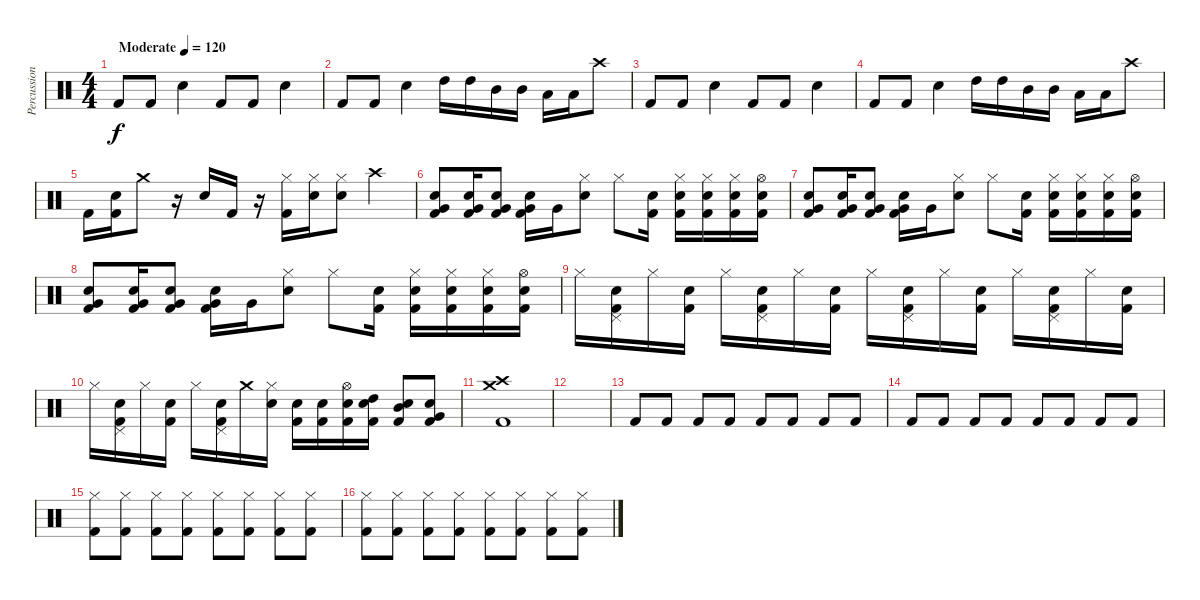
\track ("Percussion" "Percussion") {instrument percussion}
\staff {score}
\articulation defaults
\ts (4 4)
\tempo (120 "Moderate")
\clef neutral
\ks c "Kick (hit) 2".8{dy f} "Kick (hit) 2".8 "Snare (hit) 2".4 "Kick (hit) 2".8 "Kick (hit) 2".8 "Snare (hit) 2".4
|
"Kick (hit) 2".8 "Kick (hit) 2".8 "Snare (hit) 2".4 "High Tom (hit)".16 "High Tom (hit)".16 "Mid Tom (hit)".16 "Mid Tom (hit)".16 "Low Tom (hit)".16 "Low Tom (hit)".16 "Crash high (hit)".8 |
"Kick (hit) 2".8 "Kick (hit) 2".8 "Snare (hit) 2".4 "Kick (hit) 2".8 "Kick (hit) 2".8 "Snare (hit) 2".4 |
"Kick (hit) 2".8 "Kick (hit) 2".8 "Snare (hit) 2".4 "High Tom (hit)".16 "High Tom (hit)".16 "Mid Tom (hit)".16 "Mid Tom (hit)".16 "Low Tom (hit)".16 "Low Tom (hit)".16 "Crash high (hit)".8 |
"Kick (hit) 2".16 ("Kick (hit) 2" "Snare (hit) 2").16 "Crash medium (hit)".8 r.16 "Snare (hit) 2".16 "Kick (hit) 2".16 r.16 ("Kick (hit) 2" "Hi-Hat (closed)").16 ("Snare (hit) 2" "Hi-Hat (closed)").16 ("Snare (hit) 2" "Hi-Hat (closed)").8 "Crash high (hit)".4 |
("Very Low Tom (hit)" "Kick (hit) 2" "Snare (hit) 2").8 ("Very Low Tom (hit)" "Kick (hit) 2" "Snare (hit) 2").16 ("Very Low Tom (hit)" "Kick (hit) 2" "Snare (hit) 2").8 ("Very Low Tom (hit)" "Kick (hit) 2" "Snare (hit) 2").16 "Very Low Tom (hit)".16 ("Hi-Hat (closed)" "Snare (hit) 2").8 "Hi-Hat (closed)".8 ("Snare (hit) 2" "Kick (hit) 2").16 ("Hi-Hat (closed)" "Snare (hit) 2" "Kick (hit) 2").16 ("Hi-Hat (closed)" "Snare (hit) 2" "Kick (hit) 2").16 ("Hi-Hat (closed)" "Snare (hit) 2" "Kick (hit) 2").16 ("Snare (hit) 2" "Kick (hit) 2" "Hi-Hat (open)").16 |
("Very Low Tom (hit)" "Kick (hit) 2" "Snare (hit) 2").8 ("Very Low Tom (hit)" "Kick (hit) 2" "Snare (hit) 2").16 ("Very Low Tom (hit)" "Kick (hit) 2" "Snare (hit) 2").8 ("Very Low Tom (hit)" "Kick (hit) 2" "Snare (hit) 2").16 "Very Low Tom (hit)".16 ("Hi-Hat (closed)" "Snare (hit) 2").8 "Hi-Hat (closed)".8 ("Snare (hit) 2" "Kick (hit) 2").16 ("Hi-Hat (closed)" "Snare (hit) 2" "Kick (hit) 2").16 ("Hi-Hat (closed)" "Snare (hit) 2" "Kick (hit) 2").16 ("Hi-Hat (closed)" "Snare (hit) 2" "Kick (hit) 2").16 ("Snare (hit) 2" "Kick (hit) 2" "Hi-Hat (open)").16 |
("Very Low Tom (hit)" "Kick (hit) 2" "Snare (hit) 2").8 ("Very Low Tom (hit)" "Kick (hit) 2" "Snare (hit) 2").16 ("Very Low Tom (hit)" "Kick (hit) 2" "Snare (hit) 2").8 ("Very Low Tom (hit)" "Kick (hit) 2" "Snare (hit) 2").16 "Very Low Tom (hit)".16 ("Hi-Hat (closed)" "Snare (hit) 2").8 "Hi-Hat (closed)".8 ("Snare (hit) 2" "Kick (hit) 2").16 ("Hi-Hat (closed)" "Snare (hit) 2" "Kick (hit) 2").16 ("Hi-Hat (closed)" "Snare (hit) 2" "Kick (hit) 2").16 ("Hi-Hat (closed)" "Snare (hit) 2" "Kick (hit) 2").16 ("Snare (hit) 2" "Kick (hit) 2" "Hi-Hat (open)").16 |
"Hi-Hat (closed)".16 ("Pedal Hi-Hat (hit)" "Kick (hit) 2" "Snare (hit) 2").16 "Hi-Hat (closed)".16 ("Snare (hit) 2" "Kick (hit) 2").16 "Hi-Hat (closed)".16 ("Pedal Hi-Hat (hit)" "Kick (hit) 2" "Snare (hit) 2").16 "Hi-Hat (closed)".16 ("Snare (hit) 2" "Kick (hit) 2").16 "Hi-Hat (closed)".16 ("Pedal Hi-Hat (hit)" "Kick (hit) 2" "Snare (hit) 2").16 "Hi-Hat (closed)".16 ("Snare (hit) 2" "Kick (hit) 2").16 "Hi-Hat (closed)".16 ("Pedal Hi-Hat (hit)" "Kick (hit) 2" "Snare (hit) 2").16 "Hi-Hat (closed)".16 ("Snare (hit) 2" "Kick (hit) 2").16 |
"Hi-Hat (closed)".16 ("Pedal Hi-Hat (hit)" "Kick (hit) 2" "Snare (hit) 2").16 "Hi-Hat (closed)".16 ("Snare (hit) 2" "Kick (hit) 2").16 "Hi-Hat (closed)".16 ("Pedal Hi-Hat (hit)" "Kick (hit) 2" "Snare (hit) 2").16 "Crash medium (hit)".16 ("Hi-Hat (closed)" "Snare (hit) 2").16 ("Snare (hit) 2" "Kick (hit) 2").16 ("Snare (hit) 2" "Kick (hit) 2").16 ("Snare (hit) 2" "Kick (hit) 2" "Hi-Hat (open)").16 ("High Tom (hit)" "Kick (hit) 2" "Snare (hit) 2").16 ("Mid Tom (hit)" "Kick (hit) 2" "Snare (hit) 2").8 ("Very Low Tom (hit)" "Kick (hit) 2" "Snare (hit) 2").8 |
("Crash high (hit)" "Crash medium (hit)" "Kick (hit) 2").1 |
|
"Kick (hit) 2".8 "Kick (hit) 2".8 "Kick (hit) 2".8 "Kick (hit) 2".8 "Kick (hit) 2".8 "Kick (hit) 2".8 "Kick (hit) 2".8 "Kick (hit) 2".8 |
"Kick (hit) 2".8 "Kick (hit) 2".8 "Kick (hit) 2".8 "Kick (hit) 2".8 "Kick (hit) 2".8 "Kick (hit) 2".8 "Kick (hit) 2".8 "Kick (hit) 2".8 |
("Hi-Hat (closed)" "Kick (hit) 2").8 ("Hi-Hat (closed)" "Kick (hit) 2").8 ("Hi-Hat (closed)" "Kick (hit) 2").8 ("Hi-Hat (closed)" "Kick (hit) 2").8 ("Hi-Hat (closed)" "Kick (hit) 2").8 ("Hi-Hat (closed)" "Kick (hit) 2").8 ("Hi-Hat (closed)" "Kick (hit) 2").8 ("Hi-Hat (closed)" "Kick (hit) 2").8 |
("Hi-Hat (closed)" "Kick (hit) 2").8 ("Hi-Hat (closed)" "Kick (hit) 2").8 ("Hi-Hat (closed)" "Kick (hit) 2").8 ("Hi-Hat (closed)" "Kick (hit) 2").8 ("Hi-Hat (closed)" "Kick (hit) 2").8 ("Hi-Hat (closed)" "Kick (hit) 2").8 ("Hi-Hat (closed)" "Kick (hit) 2").8 ("Hi-Hat (closed)" "Kick (hit) 2").8
